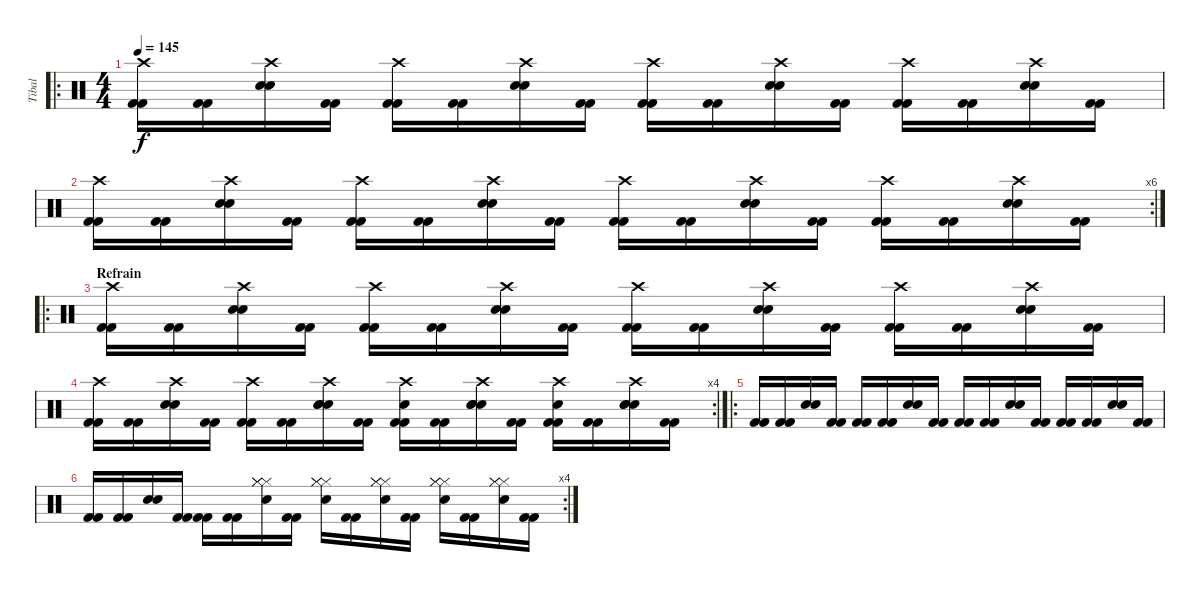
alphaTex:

\track ("Tibal" "Tibal") {instrument percussion}
\staff {score}
\articulation defaults
\ro
\ts (4 4)
\tempo 145
\clef neutral
\ks c
("Crash high (hit)" "Kick (hit) 2" "Kick (hit) 2").16{dy f} ("Kick (hit) 2" "Kick (hit) 2").16 ("Crash high (hit)" "Snare (hit) 2" "Snare (hit) 2").16 ("Kick (hit) 2" "Kick (hit) 2").16 ("Crash high (hit)" "Kick (hit) 2" "Kick (hit) 2").16 ("Kick (hit) 2" "Kick (hit) 2").16 ("Crash high (hit)" "Snare (hit) 2" "Snare (hit) 2").16 ("Kick (hit) 2" "Kick (hit) 2").16 ("Crash high (hit)" "Kick (hit) 2" "Kick (hit) 2").16 ("Kick (hit) 2" "Kick (hit) 2").16 ("Crash high (hit)" "Snare (hit) 2" "Snare (hit) 2").16 ("Kick (hit) 2" "Kick (hit) 2").16 ("Crash high (hit)" "Kick (hit) 2" "Kick (hit) 2").16 ("Kick (hit) 2" "Kick (hit) 2").16 ("Crash high (hit)" "Snare (hit) 2" "Snare (hit) 2").16 ("Kick (hit) 2" "Kick (hit) 2").16 |
\rc 6
("Crash high (hit)" "Kick (hit) 2" "Kick (hit) 2").16 ("Kick (hit) 2" "Kick (hit) 2").16 ("Crash high (hit)" "Snare (hit) 2" "Snare (hit) 2").16 ("Kick (hit) 2" "Kick (hit) 2").16 ("Crash high (hit)" "Kick (hit) 2" "Kick (hit) 2").16 ("Kick (hit) 2" "Kick (hit) 2").16 ("Crash high (hit)" "Snare (hit) 2" "Snare (hit) 2").16 ("Kick (hit) 2" "Kick (hit) 2").16 ("Crash high (hit)" "Kick (hit) 2" "Kick (hit) 2").16 ("Kick (hit) 2" "Kick (hit) 2").16 ("Crash high (hit)" "Snare (hit) 2" "Snare (hit) 2").16 ("Kick (hit) 2" "Kick (hit) 2").16 ("Crash high (hit)" "Kick (hit) 2" "Kick (hit) 2").16 ("Kick (hit) 2" "Kick (hit) 2").16 ("Crash high (hit)" "Snare (hit) 2" "Snare (hit) 2").16 ("Kick (hit) 2" "Kick (hit) 2").16 |
\ro
\section ("" "Refrain")
("Crash high (hit)" "Kick (hit) 2" "Kick (hit) 2").16 ("Kick (hit) 2" "Kick (hit) 2").16 ("Crash high (hit)" "Snare (hit) 2" "Snare (hit) 2").16 ("Kick (hit) 2" "Kick (hit) 2").16 ("Crash high (hit)" "Kick (hit) 2" "Kick (hit) 2").16 ("Kick (hit) 2" "Kick (hit) 2").16 ("Crash high (hit)" "Snare (hit) 2" "Snare (hit) 2").16 ("Kick (hit) 2" "Kick (hit) 2").16 ("Crash high (hit)" "Kick (hit) 2" "Kick (hit) 2").16 ("Kick (hit) 2" "Kick (hit) 2").16 ("Crash high (hit)" "Snare (hit) 2" "Snare (hit) 2").16 ("Kick (hit) 2" "Kick (hit) 2").16 ("Crash high (hit)" "Kick (hit) 2" "Kick (hit) 2").16 ("Kick (hit) 2" "Kick (hit) 2").16 ("Crash high (hit)" "Snare (hit) 2" "Snare (hit) 2").16 ("Kick (hit) 2" "Kick (hit) 2").16 |
\rc 4
("Crash high (hit)" "Kick (hit) 2" "Kick (hit) 2").16 ("Kick (hit) 2" "Kick (hit) 2").16 ("Crash high (hit)" "Snare (hit) 2" "Snare (hit) 2").16 ("Kick (hit) 2" "Kick (hit) 2").16 ("Crash high (hit)" "Kick (hit) 2" "Kick (hit) 2").16 ("Kick (hit) 2" "Kick (hit) 2").16 ("Crash high (hit)" "Snare (hit) 2" "Snare (hit) 2" "Snare (hit) 2").16 ("Kick (hit) 2" "Kick (hit) 2").16 ("Crash high (hit)" "Snare (hit) 2" "Kick (hit) 2" "Kick (hit) 2").16 ("Kick (hit) 2" "Kick (hit) 2").16 ("Crash high (hit)" "Snare (hit) 2" "Snare (hit) 2" "Snare (hit) 2").16 ("Kick (hit) 2" "Kick (hit) 2").16 ("Crash high (hit)" "Snare (hit) 2" "Kick (hit) 2" "Kick (hit) 2").16 ("Kick (hit) 2" "Kick (hit) 2").16 ("Crash high (hit)" "Snare (hit) 2" "Snare (hit) 2" "Snare (hit) 2").16 ("Kick (hit) 2" "Kick (hit) 2").16 |
\ro
("Kick (hit) 2" "Kick (hit) 2").16 ("Kick (hit) 2" "Kick (hit) 2").16 ("Snare (hit) 2" "Snare (hit) 2").16 ("Kick (hit) 2" "Kick (hit) 2").16 ("Kick (hit) 2" "Kick (hit) 2").16 ("Kick (hit) 2" "Kick (hit) 2").16 ("Snare (hit) 2" "Snare (hit) 2").16 ("Kick (hit) 2" "Kick (hit) 2").16 ("Kick (hit) 2" "Kick (hit) 2").16 ("Kick (hit) 2" "Kick (hit) 2").16 ("Snare (hit) 2" "Snare (hit) 2").16 ("Kick (hit) 2" "Kick (hit) 2").16 ("Kick (hit) 2" "Kick (hit) 2").16 ("Kick (hit) 2" "Kick (hit) 2").16 ("Snare (hit) 2" "Snare (hit) 2").16 ("Kick (hit) 2" "Kick (hit) 2").16 |
\rc 4
("Kick (hit) 2" "Kick (hit) 2").16 ("Kick (hit) 2" "Kick (hit) 2").16 ("Snare (hit) 2" "Snare (hit) 2").16 ("Kick (hit) 2" "Kick (hit) 2").16 ("Kick (hit) 2" "Kick (hit) 2").16 ("Kick (hit) 2" "Kick (hit) 2").16 ("Hi-Hat (closed)" "Snare (hit) 2" "Hi-Hat (closed)" "Hi-Hat (closed)").16 ("Kick (hit) 2" "Kick (hit) 2").16 ("Hi-Hat (closed)" "Snare (hit) 2" "Hi-Hat (closed)" "Hi-Hat (closed)").16 ("Kick (hit) 2" "Kick (hit) 2").16 ("Hi-Hat (closed)" "Snare (hit) 2" "Hi-Hat (closed)" "Hi-Hat (closed)").16 ("Kick (hit) 2" "Kick (hit) 2").16 ("Hi-Hat (closed)" "Snare (hit) 2" "Hi-Hat (closed)" "Hi-Hat (closed)").16 ("Kick (hit) 2" "Kick (hit) 2").16 ("Hi-Hat (closed)" "Snare (hit) 2" "Hi-Hat (closed)" "Hi-Hat (closed)").16 ("Kick (hit) 2" "Kick (hit) 2").16
